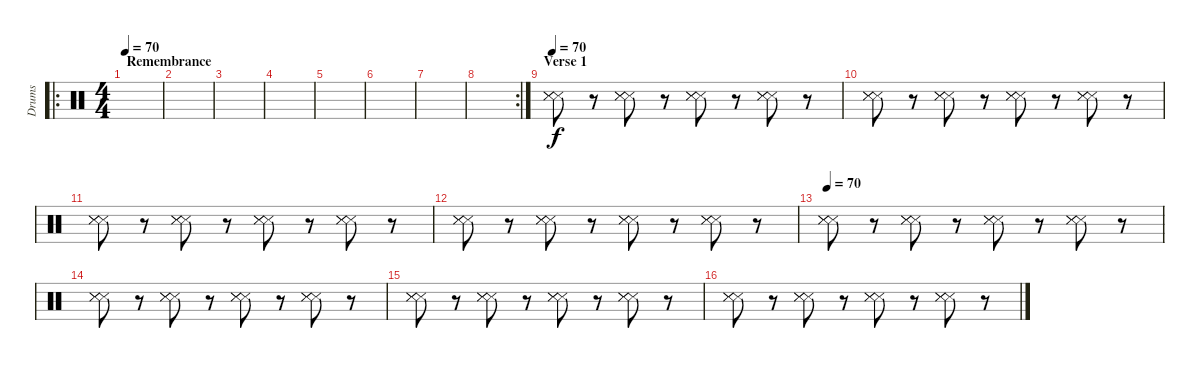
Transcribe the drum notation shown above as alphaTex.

\track ("Drums" "Drums") {instrument percussion}
\staff {score}
\articulation defaults
\ro
\ts (4 4)
\section ("" "Remembrance ")
\tempo 70
\clef neutral
\ks c
|
|
|
|
|
|
|
\rc 2
|
\section ("" "Verse 1")
\tempo 70
("Snare (side stick) 3" "Snare (side stick) 3" "Snare (side stick) 3").8 r.8 ("Snare (side stick) 3" "Snare (side stick) 3" "Snare (side stick) 3").8 r.8 ("Snare (side stick) 3" "Snare (side stick) 3" "Snare (side stick) 3").8 r.8 ("Snare (side stick) 3" "Snare (side stick) 3" "Snare (side stick) 3").8 r.8 |
("Snare (side stick) 3" "Snare (side stick) 3" "Snare (side stick) 3").8 r.8 ("Snare (side stick) 3" "Snare (side stick) 3" "Snare (side stick) 3").8 r.8 ("Snare (side stick) 3" "Snare (side stick) 3" "Snare (side stick) 3").8 r.8 ("Snare (side stick) 3" "Snare (side stick) 3" "Snare (side stick) 3").8 r.8 |
("Snare (side stick) 3" "Snare (side stick) 3" "Snare (side stick) 3").8 r.8 ("Snare (side stick) 3" "Snare (side stick) 3" "Snare (side stick) 3").8 r.8 ("Snare (side stick) 3" "Snare (side stick) 3" "Snare (side stick) 3").8 r.8 ("Snare (side stick) 3" "Snare (side stick) 3" "Snare (side stick) 3").8 r.8 |
("Snare (side stick) 3" "Snare (side stick) 3" "Snare (side stick) 3").8 r.8 ("Snare (side stick) 3" "Snare (side stick) 3" "Snare (side stick) 3").8 r.8 ("Snare (side stick) 3" "Snare (side stick) 3" "Snare (side stick) 3").8 r.8 ("Snare (side stick) 3" "Snare (side stick) 3" "Snare (side stick) 3").8 r.8 |
\tempo 70
("Snare (side stick) 3" "Snare (side stick) 3" "Snare (side stick) 3").8 r.8 ("Snare (side stick) 3" "Snare (side stick) 3" "Snare (side stick) 3").8 r.8 ("Snare (side stick) 3" "Snare (side stick) 3" "Snare (side stick) 3").8 r.8 ("Snare (side stick) 3" "Snare (side stick) 3" "Snare (side stick) 3").8 r.8 |
("Snare (side stick) 3" "Snare (side stick) 3" "Snare (side stick) 3").8 r.8 ("Snare (side stick) 3" "Snare (side stick) 3" "Snare (side stick) 3").8 r.8 ("Snare (side stick) 3" "Snare (side stick) 3" "Snare (side stick) 3").8 r.8 ("Snare (side stick) 3" "Snare (side stick) 3" "Snare (side stick) 3").8 r.8 |
("Snare (side stick) 3" "Snare (side stick) 3" "Snare (side stick) 3").8 r.8 ("Snare (side stick) 3" "Snare (side stick) 3" "Snare (side stick) 3").8 r.8 ("Snare (side stick) 3" "Snare (side stick) 3" "Snare (side stick) 3").8 r.8 ("Snare (side stick) 3" "Snare (side stick) 3" "Snare (side stick) 3").8 r.8 |
("Snare (side stick) 3" "Snare (side stick) 3" "Snare (side stick) 3").8 r.8 ("Snare (side stick) 3" "Snare (side stick) 3" "Snare (side stick) 3").8 r.8 ("Snare (side stick) 3" "Snare (side stick) 3" "Snare (side stick) 3").8 r.8 ("Snare (side stick) 3" "Snare (side stick) 3" "Snare (side stick) 3").8 r.8
